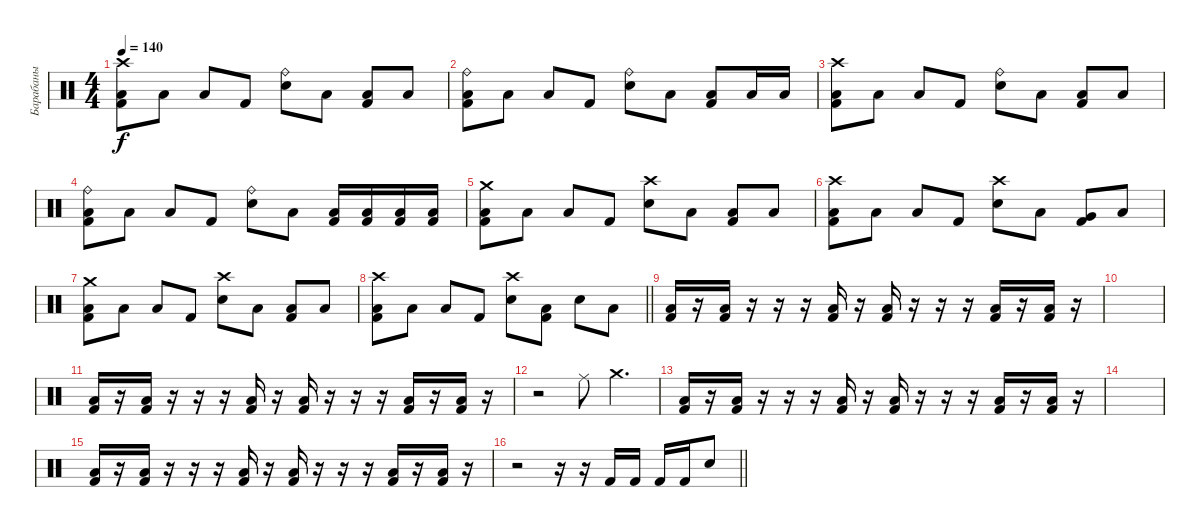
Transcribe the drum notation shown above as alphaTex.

\track ("Барабаны" "Барабаны") {instrument percussion}
\staff {score}
\articulation defaults
\ts (4 4)
\tempo 140
\clef neutral
\ks c
("Crash high (hit)" "Low Floor Tom (hit)" "Kick (hit) 2").8{dy f} "Low Floor Tom (hit)".8 "Low Floor Tom (hit)".8 "Kick (hit) 2".8 ("Ride (bell)" "Electric Snare (hit)").8 "Low Floor Tom (hit)".8 ("Low Floor Tom (hit)" "Kick (hit) 2").8 "Low Floor Tom (hit)".8 |
("Ride (bell)" "Low Floor Tom (hit)" "Kick (hit) 2").8 "Low Floor Tom (hit)".8 "Low Floor Tom (hit)".8 "Kick (hit) 2".8 ("Ride (bell)" "Electric Snare (hit)").8 "Low Floor Tom (hit)".8 ("Low Floor Tom (hit)" "Kick (hit) 2").8 "Low Floor Tom (hit)".16 "Low Floor Tom (hit)".16 |
("Crash high (hit)" "Low Floor Tom (hit)" "Kick (hit) 2").8 "Low Floor Tom (hit)".8 "Low Floor Tom (hit)".8 "Kick (hit) 2".8 ("Ride (bell)" "Electric Snare (hit)").8 "Low Floor Tom (hit)".8 ("Low Floor Tom (hit)" "Kick (hit) 2").8 "Low Floor Tom (hit)".8 |
("Ride (bell)" "Low Floor Tom (hit)" "Kick (hit) 2").8 "Low Floor Tom (hit)".8 "Low Floor Tom (hit)".8 "Kick (hit) 2".8 ("Ride (bell)" "Electric Snare (hit)").8 "Low Floor Tom (hit)".8 ("Low Floor Tom (hit)" "Kick (hit) 2").16 ("Low Floor Tom (hit)" "Kick (hit) 2").16 ("Low Floor Tom (hit)" "Kick (hit) 2").16 ("Low Floor Tom (hit)" "Kick (hit) 2").16 |
("Crash medium (hit)" "Low Floor Tom (hit)" "Kick (hit) 2").8 "Low Floor Tom (hit)".8 "Low Floor Tom (hit)".8 "Kick (hit) 2".8 ("Crash high (hit)" "Electric Snare (hit)").8 "Low Floor Tom (hit)".8 ("Low Floor Tom (hit)" "Kick (hit) 2").8 "Low Floor Tom (hit)".8 |
("Crash high (hit)" "Low Floor Tom (hit)" "Kick (hit) 2").8 "Low Floor Tom (hit)".8 "Low Floor Tom (hit)".8 "Kick (hit) 2".8 ("Crash high (hit)" "Electric Snare (hit)").8 "Low Floor Tom (hit)".8 ("Very Low Tom (hit)" "Kick (hit) 2").8 "Low Floor Tom (hit)".8 |
("Crash medium (hit)" "Low Floor Tom (hit)" "Kick (hit) 2").8 "Low Floor Tom (hit)".8 "Low Floor Tom (hit)".8 "Kick (hit) 2".8 ("Crash high (hit)" "Electric Snare (hit)").8 "Low Floor Tom (hit)".8 ("Low Floor Tom (hit)" "Kick (hit) 2").8 "Low Floor Tom (hit)".8 |
\barLineRight lightlight
("Crash high (hit)" "Low Floor Tom (hit)" "Kick (hit) 2").8 "Low Floor Tom (hit)".8 "Low Floor Tom (hit)".8 "Kick (hit) 2".8 ("Crash high (hit)" "Electric Snare (hit)").8 ("Low Floor Tom (hit)" "Kick (hit) 2").8 "Electric Snare (hit)".8 "Low Floor Tom (hit)".8 |
\section ("" " ")
("Low Floor Tom (hit)" "Kick (hit) 2").16 r.16 ("Low Floor Tom (hit)" "Kick (hit) 2").16 r.16 r.16 r.16 ("Low Floor Tom (hit)" "Kick (hit) 2").16 r.16 ("Low Floor Tom (hit)" "Kick (hit) 2").16 r.16 r.16 r.16 ("Low Floor Tom (hit)" "Kick (hit) 2").16 r.16 ("Low Floor Tom (hit)" "Kick (hit) 2").16 r.16 |
|
("Low Floor Tom (hit)" "Kick (hit) 2").16 r.16 ("Low Floor Tom (hit)" "Kick (hit) 2").16 r.16 r.16 r.16 ("Low Floor Tom (hit)" "Kick (hit) 2").16 r.16 ("Low Floor Tom (hit)" "Kick (hit) 2").16 r.16 r.16 r.16 ("Low Floor Tom (hit)" "Kick (hit) 2").16 r.16 ("Low Floor Tom (hit)" "Kick (hit) 2").16 r.16 |
r.2 "Ride (middle)".8 "Crash medium (hit)".4{d} |
("Low Floor Tom (hit)" "Kick (hit) 2").16 r.16 ("Low Floor Tom (hit)" "Kick (hit) 2").16 r.16 r.16 r.16 ("Low Floor Tom (hit)" "Kick (hit) 2").16 r.16 ("Low Floor Tom (hit)" "Kick (hit) 2").16 r.16 r.16 r.16 ("Low Floor Tom (hit)" "Kick (hit) 2").16 r.16 ("Low Floor Tom (hit)" "Kick (hit) 2").16 r.16 |
|
("Low Floor Tom (hit)" "Kick (hit) 2").16 r.16 ("Low Floor Tom (hit)" "Kick (hit) 2").16 r.16 r.16 r.16 ("Low Floor Tom (hit)" "Kick (hit) 2").16 r.16 ("Low Floor Tom (hit)" "Kick (hit) 2").16 r.16 r.16 r.16 ("Low Floor Tom (hit)" "Kick (hit) 2").16 r.16 ("Low Floor Tom (hit)" "Kick (hit) 2").16 r.16 |
\barLineRight lightlight
r.2 r.16 r.16 "Kick (hit) 2".16 "Kick (hit) 2".16 "Kick (hit) 2".16 "Kick (hit) 2".16 "Electric Snare (hit)".8
